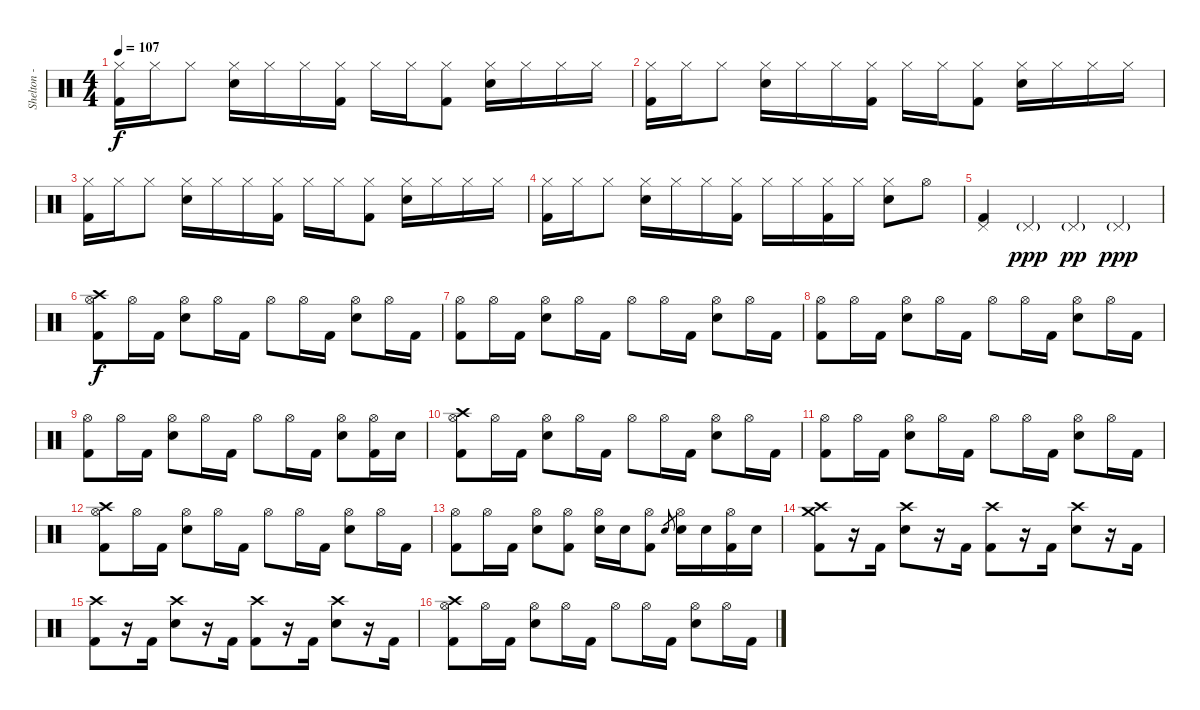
\track ("Shelton - Drums" "Shelton - ") {instrument percussion}
\staff {score}
\articulation defaults
\ts (4 4)
\tempo 107
\clef neutral
\ks c
("Hi-Hat (closed)" "Kick (hit) 2").16{dy f} "Hi-Hat (closed)".16 "Hi-Hat (closed)".8 ("Hi-Hat (closed)" "Electric Snare (hit)").16 "Hi-Hat (closed)".16 "Hi-Hat (closed)".16 ("Hi-Hat (closed)" "Kick (hit) 2").16 "Hi-Hat (closed)".16 "Hi-Hat (closed)".16 ("Hi-Hat (closed)" "Kick (hit) 2").8 ("Hi-Hat (closed)" "Electric Snare (hit)").16 "Hi-Hat (closed)".16 "Hi-Hat (closed)".16 "Hi-Hat (closed)".16 |
("Hi-Hat (closed)" "Kick (hit) 2").16 "Hi-Hat (closed)".16 "Hi-Hat (closed)".8 ("Hi-Hat (closed)" "Electric Snare (hit)").16 "Hi-Hat (closed)".16 "Hi-Hat (closed)".16 ("Hi-Hat (closed)" "Kick (hit) 2").16 "Hi-Hat (closed)".16 "Hi-Hat (closed)".16 ("Hi-Hat (closed)" "Kick (hit) 2").8 ("Hi-Hat (closed)" "Electric Snare (hit)").16 "Hi-Hat (closed)".16 "Hi-Hat (closed)".16 "Hi-Hat (closed)".16 |
("Hi-Hat (closed)" "Kick (hit) 2").16 "Hi-Hat (closed)".16 "Hi-Hat (closed)".8 ("Hi-Hat (closed)" "Electric Snare (hit)").16 "Hi-Hat (closed)".16 "Hi-Hat (closed)".16 ("Hi-Hat (closed)" "Kick (hit) 2").16 "Hi-Hat (closed)".16 "Hi-Hat (closed)".16 ("Hi-Hat (closed)" "Kick (hit) 2").8 ("Hi-Hat (closed)" "Electric Snare (hit)").16 "Hi-Hat (closed)".16 "Hi-Hat (closed)".16 "Hi-Hat (closed)".16 |
("Hi-Hat (closed)" "Kick (hit) 2").16 "Hi-Hat (closed)".16 "Hi-Hat (closed)".8 ("Hi-Hat (closed)" "Electric Snare (hit)").16 "Hi-Hat (closed)".16 "Hi-Hat (closed)".16 ("Hi-Hat (closed)" "Kick (hit) 2").16 "Hi-Hat (closed)".16 "Hi-Hat (closed)".16 ("Hi-Hat (closed)" "Kick (hit) 2").16 "Hi-Hat (closed)".16 ("Hi-Hat (closed)" "Electric Snare (hit)").8 "Hi-Hat (open)".8 |
("Pedal Hi-Hat (hit)" "Kick (hit) 2").4 "Pedal Hi-Hat (hit)"{g}.4{dy ppp} "Pedal Hi-Hat (hit)"{g}.4{dy pp} "Pedal Hi-Hat (hit)"{g}.4{dy ppp} |
("Hi-Hat (open)" "Crash high (hit)" "Kick (hit) 2").8{dy f} "Hi-Hat (open)".16 "Kick (hit) 2".16 ("Hi-Hat (open)" "Electric Snare (hit)").8 "Hi-Hat (open)".16 "Kick (hit) 2".16 "Hi-Hat (open)".8 "Hi-Hat (open)".16 "Kick (hit) 2".16 ("Hi-Hat (open)" "Electric Snare (hit)").8 "Hi-Hat (open)".16 "Kick (hit) 2".16 |
("Hi-Hat (open)" "Kick (hit) 2").8 "Hi-Hat (open)".16 "Kick (hit) 2".16 ("Hi-Hat (open)" "Electric Snare (hit)").8 "Hi-Hat (open)".16 "Kick (hit) 2".16 "Hi-Hat (open)".8 "Hi-Hat (open)".16 "Kick (hit) 2".16 ("Hi-Hat (open)" "Electric Snare (hit)").8 "Hi-Hat (open)".16 "Kick (hit) 2".16 |
("Hi-Hat (open)" "Kick (hit) 2").8 "Hi-Hat (open)".16 "Kick (hit) 2".16 ("Hi-Hat (open)" "Electric Snare (hit)").8 "Hi-Hat (open)".16 "Kick (hit) 2".16 "Hi-Hat (open)".8 "Hi-Hat (open)".16 "Kick (hit) 2".16 ("Hi-Hat (open)" "Electric Snare (hit)").8 "Hi-Hat (open)".16 "Kick (hit) 2".16 |
("Hi-Hat (open)" "Kick (hit) 2").8 "Hi-Hat (open)".16 "Kick (hit) 2".16 ("Hi-Hat (open)" "Electric Snare (hit)").8 "Hi-Hat (open)".16 "Kick (hit) 2".16 "Hi-Hat (open)".8 "Hi-Hat (open)".16 "Kick (hit) 2".16 ("Hi-Hat (open)" "Electric Snare (hit)").8 ("Hi-Hat (open)" "Kick (hit) 2").16 "Electric Snare (hit)".16 |
("Hi-Hat (open)" "Crash high (hit)" "Kick (hit) 2").8 "Hi-Hat (open)".16 "Kick (hit) 2".16 ("Hi-Hat (open)" "Electric Snare (hit)").8 "Hi-Hat (open)".16 "Kick (hit) 2".16 "Hi-Hat (open)".8 "Hi-Hat (open)".16 "Kick (hit) 2".16 ("Hi-Hat (open)" "Electric Snare (hit)").8 "Hi-Hat (open)".16 "Kick (hit) 2".16 |
("Hi-Hat (open)" "Kick (hit) 2").8 "Hi-Hat (open)".16 "Kick (hit) 2".16 ("Hi-Hat (open)" "Electric Snare (hit)").8 "Hi-Hat (open)".16 "Kick (hit) 2".16 "Hi-Hat (open)".8 "Hi-Hat (open)".16 "Kick (hit) 2".16 ("Hi-Hat (open)" "Electric Snare (hit)").8 "Hi-Hat (open)".16 "Kick (hit) 2".16 |
("Hi-Hat (open)" "Crash high (hit)" "Kick (hit) 2").8 "Hi-Hat (open)".16 "Kick (hit) 2".16 ("Hi-Hat (open)" "Electric Snare (hit)").8 "Hi-Hat (open)".16 "Kick (hit) 2".16 "Hi-Hat (open)".8 "Hi-Hat (open)".16 "Kick (hit) 2".16 ("Hi-Hat (open)" "Electric Snare (hit)").8 "Hi-Hat (open)".16 "Kick (hit) 2".16 |
("Hi-Hat (open)" "Kick (hit) 2").8 "Hi-Hat (open)".16 "Kick (hit) 2".16 ("Hi-Hat (open)" "Electric Snare (hit)").8 ("Hi-Hat (open)" "Kick (hit) 2").8 ("Hi-Hat (open)" "Electric Snare (hit)").16 "Electric Snare (hit)".16 ("Hi-Hat (open)" "Kick (hit) 2").8 "Electric Snare (hit)".8{gr} ("Hi-Hat (open)" "Electric Snare (hit)").16 "Electric Snare (hit)".16 ("Hi-Hat (open)" "Kick (hit) 2").16 "Electric Snare (hit)".16 |
("Crash high (hit)" "Crash medium (hit)" "Kick (hit) 2").8 r.16 "Kick (hit) 2".16 ("Crash high (hit)" "Electric Snare (hit)").8 r.16 "Kick (hit) 2".16 ("Crash high (hit)" "Kick (hit) 2").8 r.16 "Kick (hit) 2".16 ("Crash high (hit)" "Electric Snare (hit)").8 r.16 "Kick (hit) 2".16 |
("Crash high (hit)" "Kick (hit) 2").8 r.16 "Kick (hit) 2".16 ("Crash high (hit)" "Electric Snare (hit)").8 r.16 "Kick (hit) 2".16 ("Crash high (hit)" "Kick (hit) 2").8 r.16 "Kick (hit) 2".16 ("Crash high (hit)" "Electric Snare (hit)").8 r.16 "Kick (hit) 2".16 |
("Hi-Hat (open)" "Crash high (hit)" "Kick (hit) 2").8 "Hi-Hat (open)".16 "Kick (hit) 2".16 ("Hi-Hat (open)" "Electric Snare (hit)").8 "Hi-Hat (open)".16 "Kick (hit) 2".16 "Hi-Hat (open)".8 "Hi-Hat (open)".16 "Kick (hit) 2".16 ("Hi-Hat (open)" "Electric Snare (hit)").8 "Hi-Hat (open)".16 "Kick (hit) 2".16
